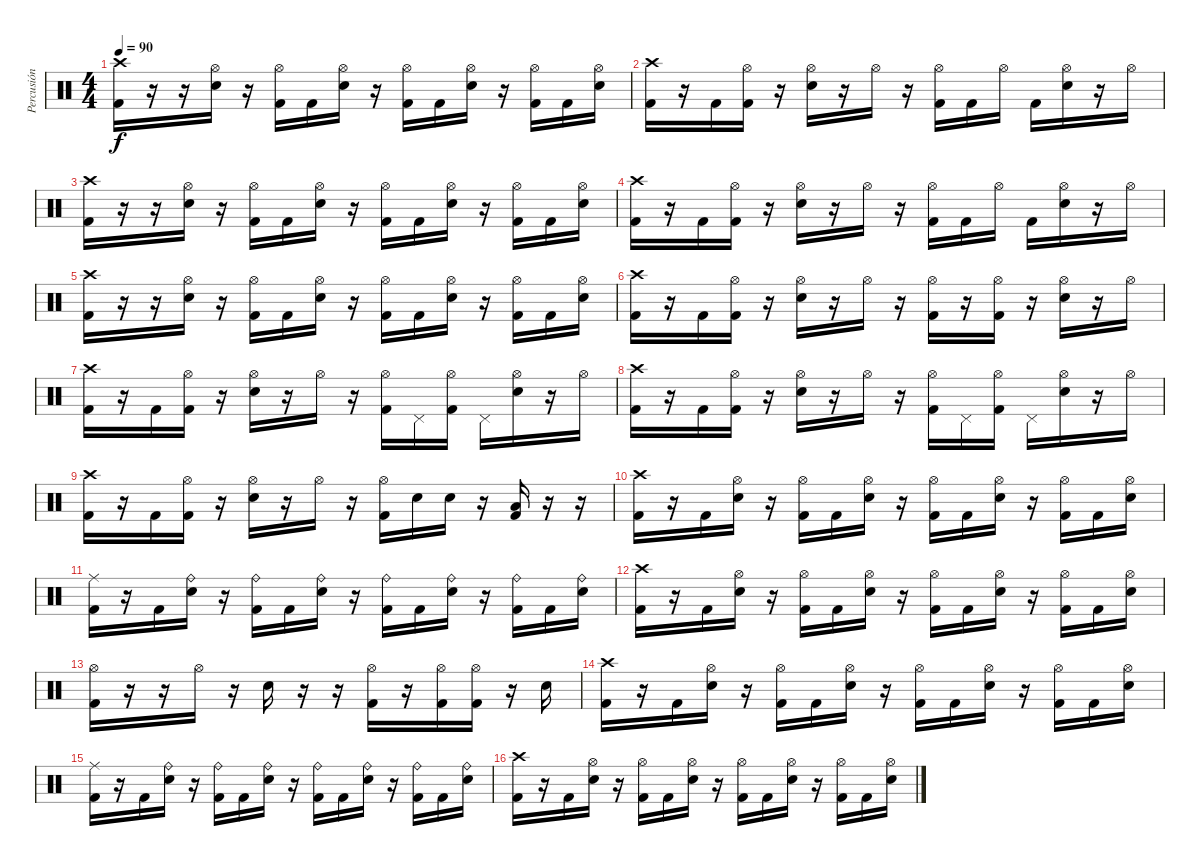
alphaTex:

\track ("Percusión" "Percusión") {instrument percussion}
\staff {score}
\articulation defaults
\ts (4 4)
\tempo 90
\clef neutral
\ks c
("Crash high (hit)" "Kick (hit) 2").16{dy f} r.16 r.16 ("Hi-Hat (open)" "Electric Snare (hit)").16 r.16 ("Hi-Hat (open)" "Kick (hit) 2").16 "Kick (hit) 2".16 ("Hi-Hat (open)" "Electric Snare (hit)").16 r.16 ("Hi-Hat (open)" "Kick (hit) 2").16 "Kick (hit) 2".16 ("Hi-Hat (open)" "Electric Snare (hit)").16 r.16 ("Hi-Hat (open)" "Kick (hit) 2").16 "Kick (hit) 2".16 ("Hi-Hat (open)" "Electric Snare (hit)").16 |
("Crash high (hit)" "Kick (hit) 2").16 r.16 "Kick (hit) 2".16 ("Hi-Hat (open)" "Kick (hit) 2").16 r.16 ("Hi-Hat (open)" "Electric Snare (hit)").16 r.16 "Hi-Hat (open)".16 r.16 ("Hi-Hat (open)" "Kick (hit) 2").16 "Kick (hit) 2".16 "Hi-Hat (open)".16 "Kick (hit) 2".16 ("Hi-Hat (open)" "Electric Snare (hit)").16 r.16 "Hi-Hat (open)".16 |
("Crash high (hit)" "Kick (hit) 2").16 r.16 r.16 ("Hi-Hat (open)" "Electric Snare (hit)").16 r.16 ("Hi-Hat (open)" "Kick (hit) 2").16 "Kick (hit) 2".16 ("Hi-Hat (open)" "Electric Snare (hit)").16 r.16 ("Hi-Hat (open)" "Kick (hit) 2").16 "Kick (hit) 2".16 ("Hi-Hat (open)" "Electric Snare (hit)").16 r.16 ("Hi-Hat (open)" "Kick (hit) 2").16 "Kick (hit) 2".16 ("Hi-Hat (open)" "Electric Snare (hit)").16 |
("Crash high (hit)" "Kick (hit) 2").16 r.16 "Kick (hit) 2".16 ("Hi-Hat (open)" "Kick (hit) 2").16 r.16 ("Hi-Hat (open)" "Electric Snare (hit)").16 r.16 "Hi-Hat (open)".16 r.16 ("Hi-Hat (open)" "Kick (hit) 2").16 "Kick (hit) 2".16 "Hi-Hat (open)".16 "Kick (hit) 2".16 ("Hi-Hat (open)" "Electric Snare (hit)").16 r.16 "Hi-Hat (open)".16 |
("Crash high (hit)" "Kick (hit) 2").16 r.16 r.16 ("Hi-Hat (open)" "Electric Snare (hit)").16 r.16 ("Hi-Hat (open)" "Kick (hit) 2").16 "Kick (hit) 2".16 ("Hi-Hat (open)" "Electric Snare (hit)").16 r.16 ("Hi-Hat (open)" "Kick (hit) 2").16 "Kick (hit) 2".16 ("Hi-Hat (open)" "Electric Snare (hit)").16 r.16 ("Hi-Hat (open)" "Kick (hit) 2").16 "Kick (hit) 2".16 ("Hi-Hat (open)" "Electric Snare (hit)").16 |
("Crash high (hit)" "Kick (hit) 2").16 r.16 "Kick (hit) 2".16 ("Hi-Hat (open)" "Kick (hit) 2").16 r.16 ("Hi-Hat (open)" "Electric Snare (hit)").16 r.16 "Hi-Hat (open)".16 r.16 ("Hi-Hat (open)" "Kick (hit) 2").16 r.16 ("Hi-Hat (open)" "Kick (hit) 2").16 r.16 ("Hi-Hat (open)" "Electric Snare (hit)").16 r.16 "Hi-Hat (open)".16 |
("Crash high (hit)" "Kick (hit) 2").16 r.16 "Kick (hit) 2".16 ("Hi-Hat (open)" "Kick (hit) 2").16 r.16 ("Hi-Hat (open)" "Electric Snare (hit)").16 r.16 "Hi-Hat (open)".16 r.16 ("Hi-Hat (open)" "Kick (hit) 2").16 "Pedal Hi-Hat (hit)".16 ("Hi-Hat (open)" "Kick (hit) 2").16 "Pedal Hi-Hat (hit)".16 ("Hi-Hat (open)" "Electric Snare (hit)").16 r.16 "Hi-Hat (open)".16 |
("Crash high (hit)" "Kick (hit) 2").16 r.16 "Kick (hit) 2".16 ("Hi-Hat (open)" "Kick (hit) 2").16 r.16 ("Hi-Hat (open)" "Electric Snare (hit)").16 r.16 "Hi-Hat (open)".16 r.16 ("Hi-Hat (open)" "Kick (hit) 2").16 "Pedal Hi-Hat (hit)".16 ("Hi-Hat (open)" "Kick (hit) 2").16 "Pedal Hi-Hat (hit)".16 ("Hi-Hat (open)" "Electric Snare (hit)").16 r.16 "Hi-Hat (open)".16 |
("Crash high (hit)" "Kick (hit) 2").16 r.16 "Kick (hit) 2".16 ("Hi-Hat (open)" "Kick (hit) 2").16 r.16 ("Hi-Hat (open)" "Electric Snare (hit)").16 r.16 "Hi-Hat (open)".16 r.16 ("Hi-Hat (open)" "Kick (hit) 2").16 "Electric Snare (hit)".16 "Electric Snare (hit)".16 r.16 ("Low Tom (hit)" "Kick (hit) 2").16 r.16 r.16 |
("Crash high (hit)" "Kick (hit) 2").16 r.16 "Kick (hit) 2".16 ("Hi-Hat (open)" "Electric Snare (hit)").16 r.16 ("Hi-Hat (open)" "Kick (hit) 2").16 "Kick (hit) 2".16 ("Hi-Hat (open)" "Electric Snare (hit)").16 r.16 ("Hi-Hat (open)" "Kick (hit) 2").16 "Kick (hit) 2".16 ("Hi-Hat (open)" "Electric Snare (hit)").16 r.16 ("Hi-Hat (open)" "Kick (hit) 2").16 "Kick (hit) 2".16 ("Hi-Hat (open)" "Electric Snare (hit)").16 |
("Ride (middle)" "Kick (hit) 2").16 r.16 "Kick (hit) 2".16 ("Ride (bell)" "Electric Snare (hit)").16 r.16 ("Ride (bell)" "Kick (hit) 2").16 "Kick (hit) 2".16 ("Ride (bell)" "Electric Snare (hit)").16 r.16 ("Ride (bell)" "Kick (hit) 2").16 "Kick (hit) 2".16 ("Ride (bell)" "Electric Snare (hit)").16 r.16 ("Ride (bell)" "Kick (hit) 2").16 "Kick (hit) 2".16 ("Ride (bell)" "Electric Snare (hit)").16 |
("Crash high (hit)" "Kick (hit) 2").16 r.16 "Kick (hit) 2".16 ("Hi-Hat (open)" "Electric Snare (hit)").16 r.16 ("Hi-Hat (open)" "Kick (hit) 2").16 "Kick (hit) 2".16 ("Hi-Hat (open)" "Electric Snare (hit)").16 r.16 ("Hi-Hat (open)" "Kick (hit) 2").16 "Kick (hit) 2".16 ("Hi-Hat (open)" "Electric Snare (hit)").16 r.16 ("Hi-Hat (open)" "Kick (hit) 2").16 "Kick (hit) 2".16 ("Hi-Hat (open)" "Electric Snare (hit)").16 |
("Hi-Hat (open)" "Kick (hit) 2").16 r.16 r.16 "Hi-Hat (open)".16 r.16 "Electric Snare (hit)".16 r.16 r.16 ("Hi-Hat (open)" "Kick (hit) 2").16 r.16 ("Hi-Hat (open)" "Kick (hit) 2").16 ("Hi-Hat (open)" "Kick (hit) 2").16 r.16 "Electric Snare (hit)".16 |
("Crash high (hit)" "Kick (hit) 2").16 r.16 "Kick (hit) 2".16 ("Hi-Hat (open)" "Electric Snare (hit)").16 r.16 ("Hi-Hat (open)" "Kick (hit) 2").16 "Kick (hit) 2".16 ("Hi-Hat (open)" "Electric Snare (hit)").16 r.16 ("Hi-Hat (open)" "Kick (hit) 2").16 "Kick (hit) 2".16 ("Hi-Hat (open)" "Electric Snare (hit)").16 r.16 ("Hi-Hat (open)" "Kick (hit) 2").16 "Kick (hit) 2".16 ("Hi-Hat (open)" "Electric Snare (hit)").16 |
("Ride (middle)" "Kick (hit) 2").16 r.16 "Kick (hit) 2".16 ("Ride (bell)" "Electric Snare (hit)").16 r.16 ("Ride (bell)" "Kick (hit) 2").16 "Kick (hit) 2".16 ("Ride (bell)" "Electric Snare (hit)").16 r.16 ("Ride (bell)" "Kick (hit) 2").16 "Kick (hit) 2".16 ("Ride (bell)" "Electric Snare (hit)").16 r.16 ("Ride (bell)" "Kick (hit) 2").16 "Kick (hit) 2".16 ("Ride (bell)" "Electric Snare (hit)").16 |
("Crash high (hit)" "Kick (hit) 2").16 r.16 "Kick (hit) 2".16 ("Hi-Hat (open)" "Electric Snare (hit)").16 r.16 ("Hi-Hat (open)" "Kick (hit) 2").16 "Kick (hit) 2".16 ("Hi-Hat (open)" "Electric Snare (hit)").16 r.16 ("Hi-Hat (open)" "Kick (hit) 2").16 "Kick (hit) 2".16 ("Hi-Hat (open)" "Electric Snare (hit)").16 r.16 ("Hi-Hat (open)" "Kick (hit) 2").16 "Kick (hit) 2".16 ("Hi-Hat (open)" "Electric Snare (hit)").16
